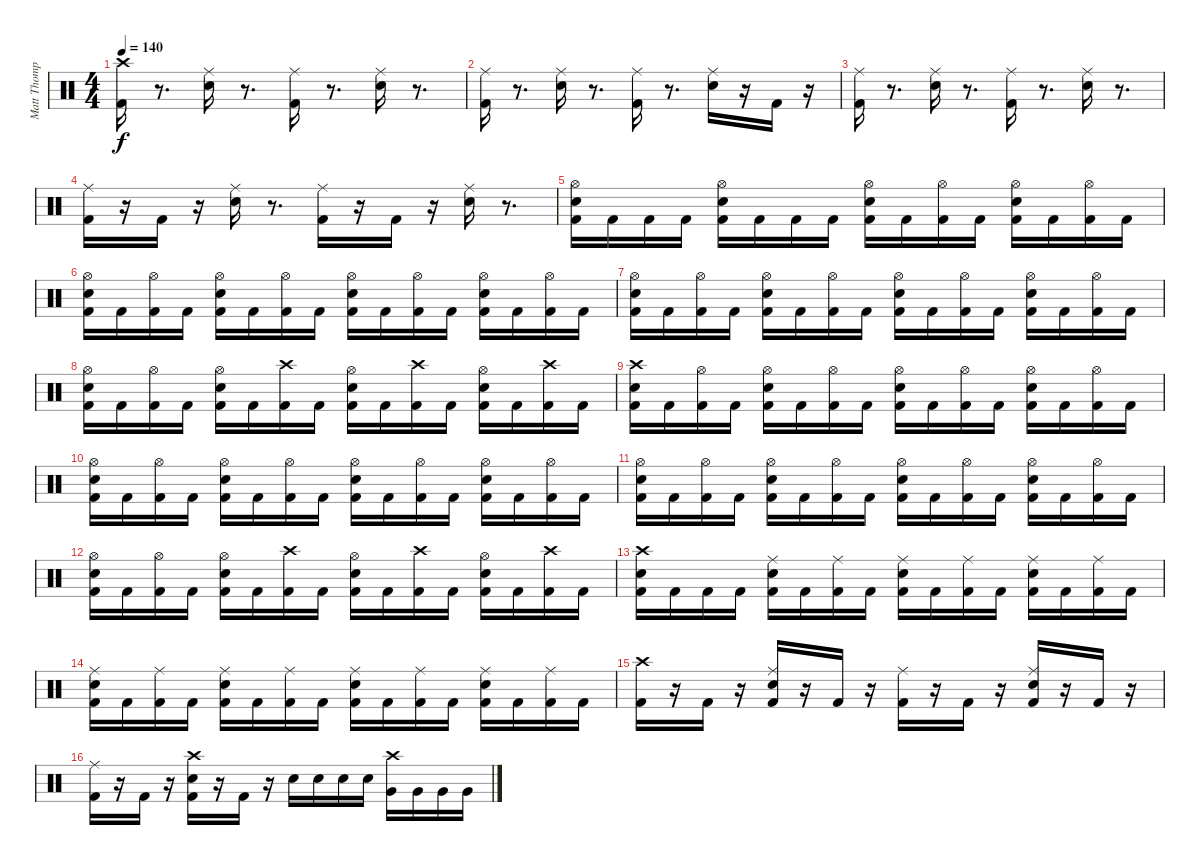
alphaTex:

\track ("Matt Thompson" "Matt Thomp") {instrument percussion}
\staff {score}
\articulation defaults
\ts (4 4)
\tempo 140
\clef neutral
\ks c
("Crash high (hit)" "Kick (hit) 2").16{dy f} r.8{d} ("Ride (middle)" "Snare (hit) 2").16 r.8{d} ("Ride (middle)" "Kick (hit) 2").16 r.8{d} ("Ride (middle)" "Snare (hit) 2").16 r.8{d} |
("Ride (middle)" "Kick (hit) 2").16 r.8{d} ("Ride (middle)" "Snare (hit) 2").16 r.8{d} ("Ride (middle)" "Kick (hit) 2").16 r.8{d} ("Ride (middle)" "Snare (hit) 2").16 r.16 "Kick (hit) 2".16 r.16 |
("Ride (middle)" "Kick (hit) 2").16 r.8{d} ("Ride (middle)" "Snare (hit) 2").16 r.8{d} ("Ride (middle)" "Kick (hit) 2").16 r.8{d} ("Ride (middle)" "Snare (hit) 2").16 r.8{d} |
("Ride (middle)" "Kick (hit) 2").16 r.16 "Kick (hit) 2".16 r.16 ("Ride (middle)" "Snare (hit) 2").16 r.8{d} ("Ride (middle)" "Kick (hit) 2").16 r.16 "Kick (hit) 2".16 r.16 ("Ride (middle)" "Snare (hit) 2").16 r.8{d} |
("Hi-Hat (open)" "Snare (hit) 2" "Kick (hit) 2").16 "Kick (hit) 2".16 "Kick (hit) 2".16 "Kick (hit) 2".16 ("Hi-Hat (open)" "Snare (hit) 2" "Kick (hit) 2").16 "Kick (hit) 2".16 "Kick (hit) 2".16 "Kick (hit) 2".16 ("Hi-Hat (open)" "Snare (hit) 2" "Kick (hit) 2").16 "Kick (hit) 2".16 ("Hi-Hat (open)" "Kick (hit) 2").16 "Kick (hit) 2".16 ("Hi-Hat (open)" "Snare (hit) 2" "Kick (hit) 2").16 "Kick (hit) 2".16 ("Hi-Hat (open)" "Kick (hit) 2").16 "Kick (hit) 2".16 |
("Hi-Hat (open)" "Snare (hit) 2" "Kick (hit) 2").16 "Kick (hit) 2".16 ("Hi-Hat (open)" "Kick (hit) 2").16 "Kick (hit) 2".16 ("Hi-Hat (open)" "Snare (hit) 2" "Kick (hit) 2").16 "Kick (hit) 2".16 ("Hi-Hat (open)" "Kick (hit) 2").16 "Kick (hit) 2".16 ("Hi-Hat (open)" "Snare (hit) 2" "Kick (hit) 2").16 "Kick (hit) 2".16 ("Hi-Hat (open)" "Kick (hit) 2").16 "Kick (hit) 2".16 ("Hi-Hat (open)" "Snare (hit) 2" "Kick (hit) 2").16 "Kick (hit) 2".16 ("Hi-Hat (open)" "Kick (hit) 2").16 "Kick (hit) 2".16 |
("Hi-Hat (open)" "Snare (hit) 2" "Kick (hit) 2").16 "Kick (hit) 2".16 ("Hi-Hat (open)" "Kick (hit) 2").16 "Kick (hit) 2".16 ("Hi-Hat (open)" "Snare (hit) 2" "Kick (hit) 2").16 "Kick (hit) 2".16 ("Hi-Hat (open)" "Kick (hit) 2").16 "Kick (hit) 2".16 ("Hi-Hat (open)" "Snare (hit) 2" "Kick (hit) 2").16 "Kick (hit) 2".16 ("Hi-Hat (open)" "Kick (hit) 2").16 "Kick (hit) 2".16 ("Hi-Hat (open)" "Snare (hit) 2" "Kick (hit) 2").16 "Kick (hit) 2".16 ("Hi-Hat (open)" "Kick (hit) 2").16 "Kick (hit) 2".16 |
("Hi-Hat (open)" "Snare (hit) 2" "Kick (hit) 2").16 "Kick (hit) 2".16 ("Hi-Hat (open)" "Kick (hit) 2").16 "Kick (hit) 2".16 ("Hi-Hat (open)" "Snare (hit) 2" "Kick (hit) 2").16 "Kick (hit) 2".16 ("Crash high (hit)" "Kick (hit) 2").16 "Kick (hit) 2".16 ("Hi-Hat (open)" "Snare (hit) 2" "Kick (hit) 2").16 "Kick (hit) 2".16 ("Crash high (hit)" "Kick (hit) 2").16 "Kick (hit) 2".16 ("Hi-Hat (open)" "Snare (hit) 2" "Kick (hit) 2").16 "Kick (hit) 2".16 ("Crash high (hit)" "Kick (hit) 2").16 "Kick (hit) 2".16 |
("Crash high (hit)" "Snare (hit) 2" "Kick (hit) 2").16 "Kick (hit) 2".16 ("Hi-Hat (open)" "Kick (hit) 2").16 "Kick (hit) 2".16 ("Hi-Hat (open)" "Snare (hit) 2" "Kick (hit) 2").16 "Kick (hit) 2".16 ("Hi-Hat (open)" "Kick (hit) 2").16 "Kick (hit) 2".16 ("Hi-Hat (open)" "Snare (hit) 2" "Kick (hit) 2").16 "Kick (hit) 2".16 ("Hi-Hat (open)" "Kick (hit) 2").16 "Kick (hit) 2".16 ("Hi-Hat (open)" "Snare (hit) 2" "Kick (hit) 2").16 "Kick (hit) 2".16 ("Hi-Hat (open)" "Kick (hit) 2").16 "Kick (hit) 2".16 |
("Hi-Hat (open)" "Snare (hit) 2" "Kick (hit) 2").16 "Kick (hit) 2".16 ("Hi-Hat (open)" "Kick (hit) 2").16 "Kick (hit) 2".16 ("Hi-Hat (open)" "Snare (hit) 2" "Kick (hit) 2").16 "Kick (hit) 2".16 ("Hi-Hat (open)" "Kick (hit) 2").16 "Kick (hit) 2".16 ("Hi-Hat (open)" "Snare (hit) 2" "Kick (hit) 2").16 "Kick (hit) 2".16 ("Hi-Hat (open)" "Kick (hit) 2").16 "Kick (hit) 2".16 ("Hi-Hat (open)" "Snare (hit) 2" "Kick (hit) 2").16 "Kick (hit) 2".16 ("Hi-Hat (open)" "Kick (hit) 2").16 "Kick (hit) 2".16 |
("Hi-Hat (open)" "Snare (hit) 2" "Kick (hit) 2").16 "Kick (hit) 2".16 ("Hi-Hat (open)" "Kick (hit) 2").16 "Kick (hit) 2".16 ("Hi-Hat (open)" "Snare (hit) 2" "Kick (hit) 2").16 "Kick (hit) 2".16 ("Hi-Hat (open)" "Kick (hit) 2").16 "Kick (hit) 2".16 ("Hi-Hat (open)" "Snare (hit) 2" "Kick (hit) 2").16 "Kick (hit) 2".16 ("Hi-Hat (open)" "Kick (hit) 2").16 "Kick (hit) 2".16 ("Hi-Hat (open)" "Snare (hit) 2" "Kick (hit) 2").16 "Kick (hit) 2".16 ("Hi-Hat (open)" "Kick (hit) 2").16 "Kick (hit) 2".16 |
("Hi-Hat (open)" "Snare (hit) 2" "Kick (hit) 2").16 "Kick (hit) 2".16 ("Hi-Hat (open)" "Kick (hit) 2").16 "Kick (hit) 2".16 ("Hi-Hat (open)" "Snare (hit) 2" "Kick (hit) 2").16 "Kick (hit) 2".16 ("Crash high (hit)" "Kick (hit) 2").16 "Kick (hit) 2".16 ("Hi-Hat (open)" "Snare (hit) 2" "Kick (hit) 2").16 "Kick (hit) 2".16 ("Crash high (hit)" "Kick (hit) 2").16 "Kick (hit) 2".16 ("Hi-Hat (open)" "Snare (hit) 2" "Kick (hit) 2").16 "Kick (hit) 2".16 ("Crash high (hit)" "Kick (hit) 2").16 "Kick (hit) 2".16 |
("Crash high (hit)" "Snare (hit) 2" "Kick (hit) 2").16 "Kick (hit) 2".16 "Kick (hit) 2".16 "Kick (hit) 2".16 ("Ride (middle)" "Snare (hit) 2" "Kick (hit) 2").16 "Kick (hit) 2".16 ("Ride (middle)" "Kick (hit) 2").16 "Kick (hit) 2".16 ("Ride (middle)" "Snare (hit) 2" "Kick (hit) 2").16 "Kick (hit) 2".16 ("Ride (middle)" "Kick (hit) 2").16 "Kick (hit) 2".16 ("Ride (middle)" "Snare (hit) 2" "Kick (hit) 2").16 "Kick (hit) 2".16 ("Ride (middle)" "Kick (hit) 2").16 "Kick (hit) 2".16 |
("Ride (middle)" "Snare (hit) 2" "Kick (hit) 2").16 "Kick (hit) 2".16 ("Ride (middle)" "Kick (hit) 2").16 "Kick (hit) 2".16 ("Ride (middle)" "Snare (hit) 2" "Kick (hit) 2").16 "Kick (hit) 2".16 ("Ride (middle)" "Kick (hit) 2").16 "Kick (hit) 2".16 ("Ride (middle)" "Snare (hit) 2" "Kick (hit) 2").16 "Kick (hit) 2".16 ("Ride (middle)" "Kick (hit) 2").16 "Kick (hit) 2".16 ("Ride (middle)" "Snare (hit) 2" "Kick (hit) 2").16 "Kick (hit) 2".16 ("Ride (middle)" "Kick (hit) 2").16 "Kick (hit) 2".16 |
("Crash high (hit)" "Kick (hit) 2").16 r.16 "Kick (hit) 2".16 r.16 ("Ride (middle)" "Kick (hit) 2" "Snare (hit) 2").16 r.16 "Kick (hit) 2".16 r.16 ("Ride (middle)" "Kick (hit) 2").16 r.16 "Kick (hit) 2".16 r.16 ("Ride (middle)" "Snare (hit) 2" "Kick (hit) 2").16 r.16 "Kick (hit) 2".16 r.16 |
("Ride (middle)" "Kick (hit) 2").16 r.16 "Kick (hit) 2".16 r.16 ("Crash high (hit)" "Kick (hit) 2" "Snare (hit) 2").16 r.16 "Kick (hit) 2".16 r.16 "Snare (hit) 2".16 "Snare (hit) 2".16 "Snare (hit) 2".16 "Snare (hit) 2".16 ("Crash high (hit)" "Very Low Tom (hit)").16 "Very Low Tom (hit)".16 "Very Low Tom (hit)".16 "Very Low Tom (hit)".16
